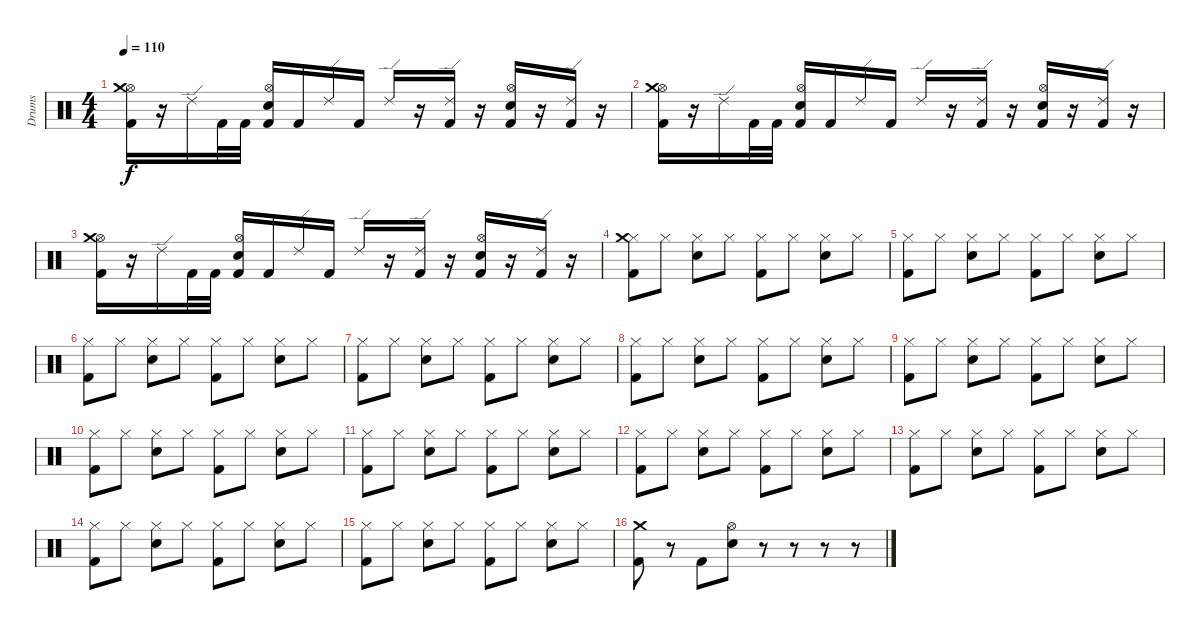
\track ("Drums" "Drums") {instrument percussion}
\staff {score}
\articulation defaults
\ts (4 4)
\tempo 110
\clef neutral
\ks c
("Kick (hit) 2" "Hi-Hat (open)" "Crash medium (hit)").16{dy f} r.16 "Ride (edge) 2".16 "Kick (hit) 2".32 "Kick (hit) 2".32 ("Kick (hit) 2" "Hi-Hat (open)" "Electric Snare (hit)").16 "Kick (hit) 2".16 "Ride (edge) 2".16 "Kick (hit) 2".16 "Ride (edge) 2".16 r.16 ("Kick (hit) 2" "Ride (edge) 2").16 r.16 ("Kick (hit) 2" "Hi-Hat (open)" "Electric Snare (hit)").16 r.16 ("Kick (hit) 2" "Ride (edge) 2").16 r.16 |
("Kick (hit) 2" "Hi-Hat (open)" "Crash medium (hit)").16 r.16 "Ride (edge) 2".16 "Kick (hit) 2".32 "Kick (hit) 2".32 ("Kick (hit) 2" "Hi-Hat (open)" "Electric Snare (hit)").16 "Kick (hit) 2".16 "Ride (edge) 2".16 "Kick (hit) 2".16 "Ride (edge) 2".16 r.16 ("Kick (hit) 2" "Ride (edge) 2").16 r.16 ("Kick (hit) 2" "Hi-Hat (open)" "Electric Snare (hit)").16 r.16 ("Kick (hit) 2" "Ride (edge) 2").16 r.16 |
("Kick (hit) 2" "Hi-Hat (open)" "Crash medium (hit)").16 r.16 "Ride (edge) 2".16 "Kick (hit) 2".32 "Kick (hit) 2".32 ("Kick (hit) 2" "Hi-Hat (open)" "Electric Snare (hit)").16 "Kick (hit) 2".16 "Ride (edge) 2".16 "Kick (hit) 2".16 "Ride (edge) 2".16 r.16 ("Kick (hit) 2" "Ride (edge) 2").16 r.16 ("Kick (hit) 2" "Hi-Hat (open)" "Electric Snare (hit)").16 r.16 ("Kick (hit) 2" "Ride (edge) 2").16 r.16 |
("Kick (hit) 2" "Hi-Hat (closed)" "Crash medium (hit)").8 "Hi-Hat (closed)".8 ("Hi-Hat (closed)" "Electric Snare (hit)").8 "Hi-Hat (closed)".8 ("Kick (hit) 2" "Hi-Hat (closed)").8 "Hi-Hat (closed)".8 ("Hi-Hat (closed)" "Electric Snare (hit)").8 "Hi-Hat (closed)".8 |
("Kick (hit) 2" "Hi-Hat (closed)").8 "Hi-Hat (closed)".8 ("Hi-Hat (closed)" "Electric Snare (hit)").8 "Hi-Hat (closed)".8 ("Kick (hit) 2" "Hi-Hat (closed)").8 "Hi-Hat (closed)".8 ("Hi-Hat (closed)" "Electric Snare (hit)").8 "Hi-Hat (closed)".8 |
("Kick (hit) 2" "Hi-Hat (closed)").8 "Hi-Hat (closed)".8 ("Hi-Hat (closed)" "Electric Snare (hit)").8 "Hi-Hat (closed)".8 ("Kick (hit) 2" "Hi-Hat (closed)").8 "Hi-Hat (closed)".8 ("Hi-Hat (closed)" "Electric Snare (hit)").8 "Hi-Hat (closed)".8 |
("Kick (hit) 2" "Hi-Hat (closed)").8 "Hi-Hat (closed)".8 ("Hi-Hat (closed)" "Electric Snare (hit)").8 "Hi-Hat (closed)".8 ("Kick (hit) 2" "Hi-Hat (closed)").8 "Hi-Hat (closed)".8 ("Hi-Hat (closed)" "Electric Snare (hit)").8 "Hi-Hat (closed)".8 |
("Kick (hit) 2" "Hi-Hat (closed)").8 "Hi-Hat (closed)".8 ("Hi-Hat (closed)" "Electric Snare (hit)").8 "Hi-Hat (closed)".8 ("Kick (hit) 2" "Hi-Hat (closed)").8 "Hi-Hat (closed)".8 ("Hi-Hat (closed)" "Electric Snare (hit)").8 "Hi-Hat (closed)".8 |
("Kick (hit) 2" "Hi-Hat (closed)").8 "Hi-Hat (closed)".8 ("Hi-Hat (closed)" "Electric Snare (hit)").8 "Hi-Hat (closed)".8 ("Kick (hit) 2" "Hi-Hat (closed)").8 "Hi-Hat (closed)".8 ("Hi-Hat (closed)" "Electric Snare (hit)").8 "Hi-Hat (closed)".8 |
("Kick (hit) 2" "Hi-Hat (closed)").8 "Hi-Hat (closed)".8 ("Hi-Hat (closed)" "Electric Snare (hit)").8 "Hi-Hat (closed)".8 ("Kick (hit) 2" "Hi-Hat (closed)").8 "Hi-Hat (closed)".8 ("Hi-Hat (closed)" "Electric Snare (hit)").8 "Hi-Hat (closed)".8 |
("Kick (hit) 2" "Hi-Hat (closed)").8 "Hi-Hat (closed)".8 ("Hi-Hat (closed)" "Electric Snare (hit)").8 "Hi-Hat (closed)".8 ("Kick (hit) 2" "Hi-Hat (closed)").8 "Hi-Hat (closed)".8 ("Hi-Hat (closed)" "Electric Snare (hit)").8 "Hi-Hat (closed)".8 |
("Kick (hit) 2" "Hi-Hat (closed)").8 "Hi-Hat (closed)".8 ("Hi-Hat (closed)" "Electric Snare (hit)").8 "Hi-Hat (closed)".8 ("Kick (hit) 2" "Hi-Hat (closed)").8 "Hi-Hat (closed)".8 ("Hi-Hat (closed)" "Electric Snare (hit)").8 "Hi-Hat (closed)".8 |
("Kick (hit) 2" "Hi-Hat (closed)").8 "Hi-Hat (closed)".8 ("Hi-Hat (closed)" "Electric Snare (hit)").8 "Hi-Hat (closed)".8 ("Kick (hit) 2" "Hi-Hat (closed)").8 "Hi-Hat (closed)".8 ("Hi-Hat (closed)" "Electric Snare (hit)").8 "Hi-Hat (closed)".8 |
("Kick (hit) 2" "Hi-Hat (closed)").8 "Hi-Hat (closed)".8 ("Hi-Hat (closed)" "Electric Snare (hit)").8 "Hi-Hat (closed)".8 ("Kick (hit) 2" "Hi-Hat (closed)").8 "Hi-Hat (closed)".8 ("Hi-Hat (closed)" "Electric Snare (hit)").8 "Hi-Hat (closed)".8 |
("Kick (hit) 2" "Hi-Hat (closed)").8 "Hi-Hat (closed)".8 ("Hi-Hat (closed)" "Electric Snare (hit)").8 "Hi-Hat (closed)".8 ("Kick (hit) 2" "Hi-Hat (closed)").8 "Hi-Hat (closed)".8 ("Hi-Hat (closed)" "Electric Snare (hit)").8 "Hi-Hat (closed)".8 |
("Kick (hit) 2" "Crash medium (hit)").8 r.8 "Kick (hit) 2".8 ("Hi-Hat (open)" "Electric Snare (hit)").8 r.8 r.8 r.8 r.8
